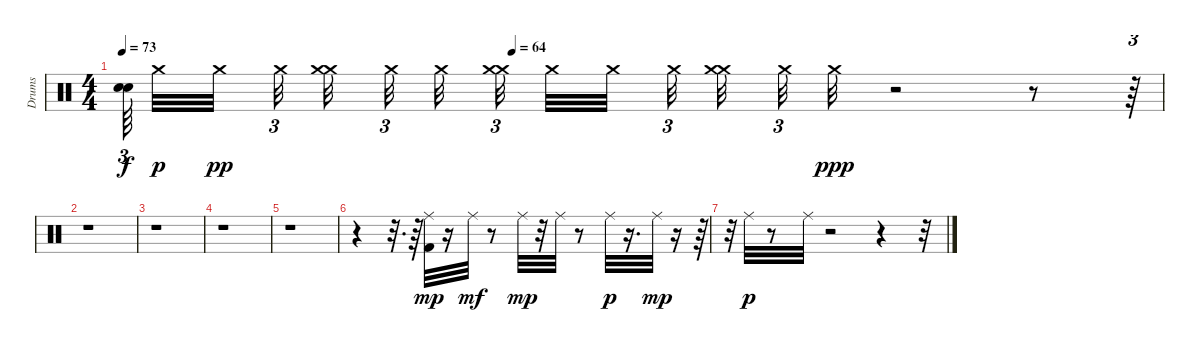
\track ("Drums" "Drums") {instrument percussion}
\staff {score}
\articulation defaults
\ts (4 4)
\tempo 73
\tempo (64 0.375)
\clef neutral
\ks c
("Snare (hit)"{t} "Snare (hit)"{t}).64{tu (3 2) dy f beam splitsecondary} "Crash medium (hit)".32{dy p} "Crash medium (hit)".32{dy pp beam splitsecondary} "Crash medium (hit)".32{tu (3 2) beam splitsecondary} ("Crash medium (hit)" "Crash medium (hit)").32{beam splitsecondary} "Crash medium (hit)".32{tu (3 2) beam splitsecondary} "Crash medium (hit)".32{beam splitsecondary} ("Crash medium (hit)" "Crash medium (hit)").32{tu (3 2) beam splitsecondary} "Crash medium (hit)".32 "Crash medium (hit)".32 "Crash medium (hit)".32{tu (3 2) beam splitsecondary} ("Crash medium (hit)" "Crash medium (hit)").32{beam splitsecondary} "Crash medium (hit)".32{tu (3 2)} "Crash medium (hit)".32{dy ppp} r.2 r.8 r.64{tu (3 2)} |
r.1 |
r.1 |
r.1 |
r.1 |
r.4 r.32{d} r.64 ("Kick (hit) 2" "Ride (middle)").32{dy mp} r.16 "Ride (middle)".32{dy mf} r.8 "Ride (middle)".32{dy mp} r.32 "Ride (middle)".32 r.8 "Ride (middle)".32{dy p} r.16{d} "Ride (middle)".32{dy mp} r.16 r.64{tu (3 2)} |
r.32{tu (3 2)} "Ride (middle)".32{dy p} r.8 "Ride (middle)".32 r.2 r.4 r.32
